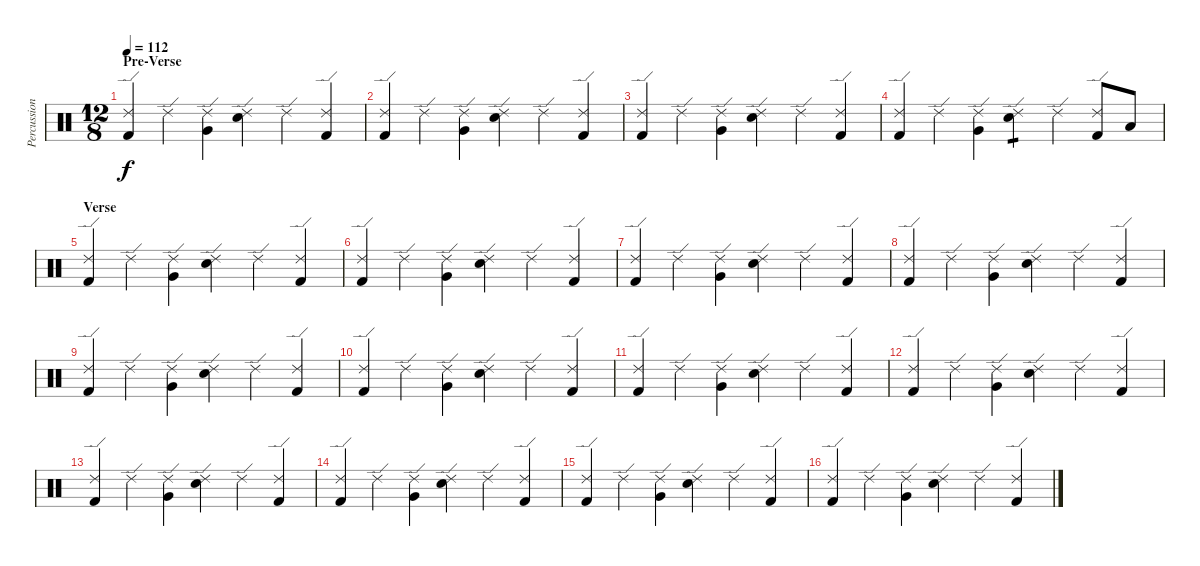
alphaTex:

\track ("Percussion" "Percussion") {instrument percussion}
\staff {score}
\articulation defaults
\ts (12 8)
\section ("" "Pre-Verse")
\tempo 112
\clef neutral
\ks c
("Ride (edge) 2" "Kick (hit) 2").4{dy f volume 13} "Ride (edge) 2".4 ("Ride (edge) 2" "Very Low Tom (hit)").4 ("Ride (edge) 2" "Electric Snare (hit)").4 "Ride (edge) 2".4 ("Ride (edge) 2" "Kick (hit) 2").4 |
("Ride (edge) 2" "Kick (hit) 2").4 "Ride (edge) 2".4 ("Ride (edge) 2" "Very Low Tom (hit)").4 ("Ride (edge) 2" "Electric Snare (hit)").4 "Ride (edge) 2".4 ("Ride (edge) 2" "Kick (hit) 2").4 |
("Ride (edge) 2" "Kick (hit) 2").4 "Ride (edge) 2".4 ("Ride (edge) 2" "Very Low Tom (hit)").4 ("Ride (edge) 2" "Electric Snare (hit)").4 "Ride (edge) 2".4 ("Ride (edge) 2" "Kick (hit) 2").4 |
("Ride (edge) 2" "Kick (hit) 2").4 "Ride (edge) 2".4 ("Ride (edge) 2" "Very Low Tom (hit)").4 ("Ride (edge) 2" "Electric Snare (hit)").4{tp 1} "Ride (edge) 2".4 ("Ride (edge) 2" "Kick (hit) 2").8 "Low Tom (hit)".8 |
\section ("" "Verse")
("Ride (edge) 2" "Kick (hit) 2").4 "Ride (edge) 2".4 ("Ride (edge) 2" "Very Low Tom (hit)").4 ("Ride (edge) 2" "Electric Snare (hit)").4 "Ride (edge) 2".4 ("Ride (edge) 2" "Kick (hit) 2").4 |
("Ride (edge) 2" "Kick (hit) 2").4 "Ride (edge) 2".4 ("Ride (edge) 2" "Very Low Tom (hit)").4 ("Ride (edge) 2" "Electric Snare (hit)").4 "Ride (edge) 2".4 ("Ride (edge) 2" "Kick (hit) 2").4 |
("Ride (edge) 2" "Kick (hit) 2").4 "Ride (edge) 2".4 ("Ride (edge) 2" "Very Low Tom (hit)").4 ("Ride (edge) 2" "Electric Snare (hit)").4 "Ride (edge) 2".4 ("Ride (edge) 2" "Kick (hit) 2").4 |
("Ride (edge) 2" "Kick (hit) 2").4 "Ride (edge) 2".4 ("Ride (edge) 2" "Very Low Tom (hit)").4 ("Ride (edge) 2" "Electric Snare (hit)").4 "Ride (edge) 2".4 ("Ride (edge) 2" "Kick (hit) 2").4 |
("Ride (edge) 2" "Kick (hit) 2").4 "Ride (edge) 2".4 ("Ride (edge) 2" "Very Low Tom (hit)").4 ("Ride (edge) 2" "Electric Snare (hit)").4 "Ride (edge) 2".4 ("Ride (edge) 2" "Kick (hit) 2").4 |
("Ride (edge) 2" "Kick (hit) 2").4 "Ride (edge) 2".4 ("Ride (edge) 2" "Very Low Tom (hit)").4 ("Ride (edge) 2" "Electric Snare (hit)").4 "Ride (edge) 2".4 ("Ride (edge) 2" "Kick (hit) 2").4 |
("Ride (edge) 2" "Kick (hit) 2").4 "Ride (edge) 2".4 ("Ride (edge) 2" "Very Low Tom (hit)").4 ("Ride (edge) 2" "Electric Snare (hit)").4 "Ride (edge) 2".4 ("Ride (edge) 2" "Kick (hit) 2").4 |
("Ride (edge) 2" "Kick (hit) 2").4 "Ride (edge) 2".4 ("Ride (edge) 2" "Very Low Tom (hit)").4 ("Ride (edge) 2" "Electric Snare (hit)").4 "Ride (edge) 2".4 ("Ride (edge) 2" "Kick (hit) 2").4 |
("Ride (edge) 2" "Kick (hit) 2").4 "Ride (edge) 2".4 ("Ride (edge) 2" "Very Low Tom (hit)").4 ("Ride (edge) 2" "Electric Snare (hit)").4 "Ride (edge) 2".4 ("Ride (edge) 2" "Kick (hit) 2").4 |
("Ride (edge) 2" "Kick (hit) 2").4 "Ride (edge) 2".4 ("Ride (edge) 2" "Very Low Tom (hit)").4 ("Ride (edge) 2" "Electric Snare (hit)").4 "Ride (edge) 2".4 ("Ride (edge) 2" "Kick (hit) 2").4 |
("Ride (edge) 2" "Kick (hit) 2").4 "Ride (edge) 2".4 ("Ride (edge) 2" "Very Low Tom (hit)").4 ("Ride (edge) 2" "Electric Snare (hit)").4 "Ride (edge) 2".4 ("Ride (edge) 2" "Kick (hit) 2").4 |
("Ride (edge) 2" "Kick (hit) 2").4 "Ride (edge) 2".4 ("Ride (edge) 2" "Very Low Tom (hit)").4 ("Ride (edge) 2" "Electric Snare (hit)").4 "Ride (edge) 2".4 ("Ride (edge) 2" "Kick (hit) 2").4
